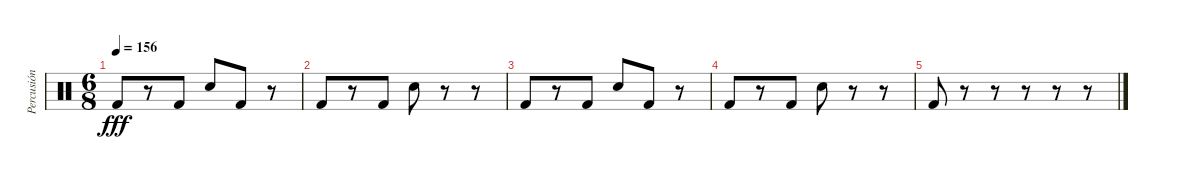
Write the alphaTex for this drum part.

\track ("Percusión" "Percusión") {instrument percussion}
\staff {score}
\articulation defaults
\ts (6 8)
\tempo 156
\clef neutral
\ks c "Kick (hit) 2".8{dy fff}
r.8 "Kick (hit) 2".8 "Snare (hit) 2".8 "Kick (hit) 2".8 r.8 |
"Kick (hit) 2".8 r.8 "Kick (hit) 2".8 "Snare (hit) 2".8 r.8 r.8 |
"Kick (hit) 2".8 r.8 "Kick (hit) 2".8 "Snare (hit) 2".8 "Kick (hit) 2".8 r.8 |
"Kick (hit) 2".8 r.8 "Kick (hit) 2".8 "Snare (hit) 2".8 r.8 r.8 |
"Kick (hit) 2".8 r.8 r.8 r.8 r.8 r.8
